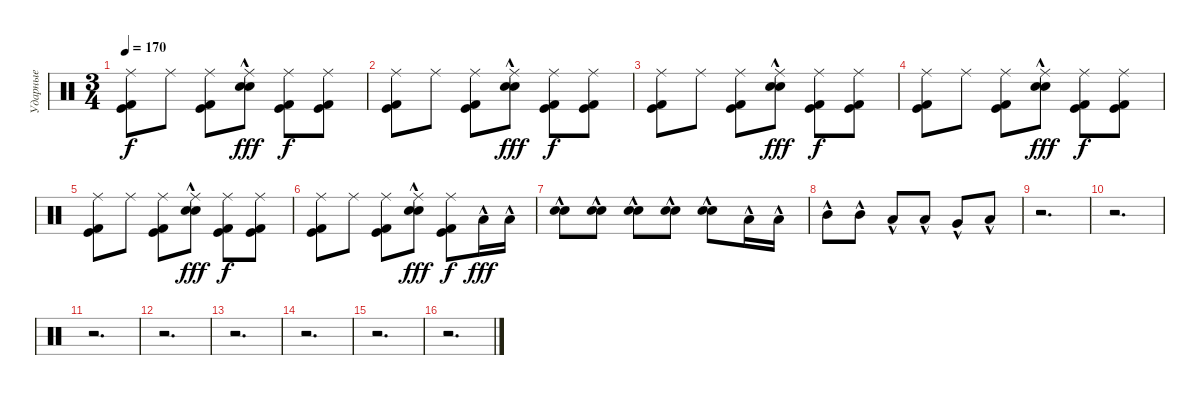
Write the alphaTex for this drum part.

\track ("Ударные" "Ударные") {instrument percussion}
\staff {score}
\articulation defaults
\ts (3 4)
\tempo 170
\clef neutral
\ks c
("Ride (middle)" "Kick (hit)" "Kick (hit) 2").8{dy f} "Ride (middle)".8 ("Ride (middle)" "Kick (hit)" "Kick (hit) 2").8 ("Ride (middle)" "Snare (hit) 2"{hac} "Electric Snare (hit)"{hac}).8{dy fff} ("Ride (middle)" "Kick (hit)" "Kick (hit) 2").8{dy f} ("Ride (middle)" "Kick (hit)" "Kick (hit) 2").8 |
("Ride (middle)" "Kick (hit)" "Kick (hit) 2").8 "Ride (middle)".8 ("Ride (middle)" "Kick (hit)" "Kick (hit) 2").8 ("Ride (middle)" "Snare (hit) 2"{hac} "Electric Snare (hit)"{hac}).8{dy fff} ("Ride (middle)" "Kick (hit)" "Kick (hit) 2").8{dy f} ("Ride (middle)" "Kick (hit)" "Kick (hit) 2").8 |
("Ride (middle)" "Kick (hit)" "Kick (hit) 2").8 "Ride (middle)".8 ("Ride (middle)" "Kick (hit)" "Kick (hit) 2").8 ("Ride (middle)" "Snare (hit) 2"{hac} "Electric Snare (hit)"{hac}).8{dy fff} ("Ride (middle)" "Kick (hit)" "Kick (hit) 2").8{dy f} ("Ride (middle)" "Kick (hit)" "Kick (hit) 2").8 |
("Ride (middle)" "Kick (hit)" "Kick (hit) 2").8 "Ride (middle)".8 ("Ride (middle)" "Kick (hit)" "Kick (hit) 2").8 ("Ride (middle)" "Snare (hit) 2"{hac} "Electric Snare (hit)"{hac}).8{dy fff} ("Ride (middle)" "Kick (hit)" "Kick (hit) 2").8{dy f} ("Ride (middle)" "Kick (hit)" "Kick (hit) 2").8 |
("Ride (middle)" "Kick (hit)" "Kick (hit) 2").8 "Ride (middle)".8 ("Ride (middle)" "Kick (hit)" "Kick (hit) 2").8 ("Ride (middle)" "Snare (hit) 2"{hac} "Electric Snare (hit)"{hac}).8{dy fff} ("Ride (middle)" "Kick (hit)" "Kick (hit) 2").8{dy f} ("Ride (middle)" "Kick (hit)" "Kick (hit) 2").8 |
("Ride (middle)" "Kick (hit)" "Kick (hit) 2").8 "Ride (middle)".8 ("Ride (middle)" "Kick (hit)" "Kick (hit) 2").8 ("Ride (middle)" "Snare (hit) 2"{hac} "Electric Snare (hit)"{hac}).8{dy fff} ("Ride (middle)" "Kick (hit)" "Kick (hit) 2").8{dy f} "Low Tom (hit)"{hac}.16{dy fff} "Low Tom (hit)"{hac}.16 |
("Snare (hit) 2"{hac} "Electric Snare (hit)"{hac}).8 ("Snare (hit) 2"{hac} "Electric Snare (hit)"{hac}).8 ("Snare (hit) 2"{hac} "Electric Snare (hit)"{hac}).8 ("Snare (hit) 2"{hac} "Electric Snare (hit)"{hac}).8 ("Snare (hit) 2"{hac} "Electric Snare (hit)"{hac}).8 "Low Floor Tom (hit)"{hac}.16 "Low Floor Tom (hit)"{hac}.16 |
"Mid Tom (hit)"{hac}.8 "Mid Tom (hit)"{hac}.8 "Low Tom (hit)"{hac}.8 "Low Tom (hit)"{hac}.8 "Very Low Tom (hit)"{hac}.8 "Low Floor Tom (hit)"{hac}.8 |
r.2{d} |
r.2{d} |
r.2{d} |
r.2{d} |
r.2{d} |
r.2{d} |
r.2{d} |
r.2{d}
